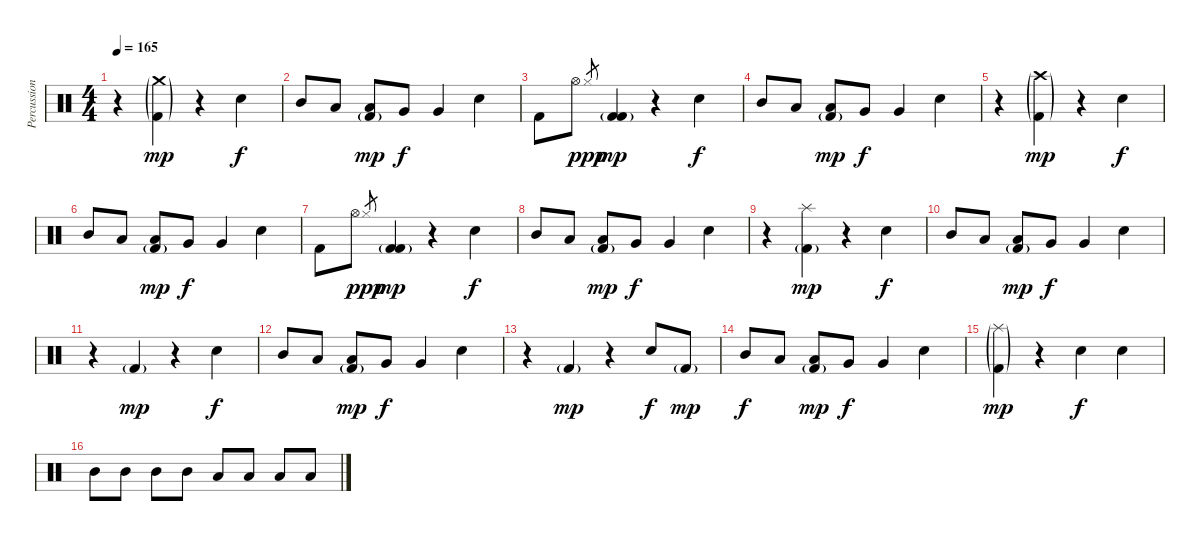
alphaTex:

\track ("Percussions" "Percussion") {instrument percussion}
\staff {score}
\articulation defaults
\ts (4 4)
\tempo 165
\clef neutral
\ks c
r.4{dy f} ("Kick (hit) 2"{g} "Crash medium (hit)"{g}).4{dy mp} r.4 "Electric Snare (hit)".4{dy f} |
"Mid Tom (hit)".8 "Low Tom (hit)".8 ("Kick (hit) 2"{g} "Low Tom (hit)").8{dy mp} "Very Low Tom (hit)".8{dy f} "Very Low Tom (hit)".4 "Electric Snare (hit)".4 |
"Kick (hit) 2".8 "Hi-Hat (open)".8 "Hi-Hat (closed)".8{gr dy ppp} ("Kick (hit) 2"{g} "Kick (hit) 2").4{dy mp} r.4 "Electric Snare (hit)".4{dy f} |
"Mid Tom (hit)".8 "Low Tom (hit)".8 ("Kick (hit) 2"{g} "Low Tom (hit)").8{dy mp} "Very Low Tom (hit)".8{dy f} "Very Low Tom (hit)".4 "Electric Snare (hit)".4 |
r.4 ("Kick (hit) 2"{g} "Crash high (hit)"{g}).4{dy mp} r.4 "Electric Snare (hit)".4{dy f} |
"Mid Tom (hit)".8 "Low Tom (hit)".8 ("Kick (hit) 2"{g} "Low Tom (hit)").8{dy mp} "Very Low Tom (hit)".8{dy f} "Very Low Tom (hit)".4 "Electric Snare (hit)".4 |
"Kick (hit) 2".8 "Hi-Hat (open)".8 "Hi-Hat (closed)".8{gr dy ppp} ("Kick (hit) 2"{g} "Kick (hit) 2").4{dy mp} r.4 "Electric Snare (hit)".4{dy f} |
"Mid Tom (hit)".8 "Low Tom (hit)".8 ("Kick (hit) 2"{g} "Low Tom (hit)").8{dy mp} "Very Low Tom (hit)".8{dy f} "Very Low Tom (hit)".4 "Electric Snare (hit)".4 |
r.4 ("Kick (hit) 2"{g} "Splash (hit)").4{dy mp} r.4 "Electric Snare (hit)".4{dy f} |
"Mid Tom (hit)".8 "Low Tom (hit)".8 ("Kick (hit) 2"{g} "Low Tom (hit)").8{dy mp} "Very Low Tom (hit)".8{dy f} "Very Low Tom (hit)".4 "Electric Snare (hit)".4 |
r.4 "Kick (hit) 2"{g}.4{dy mp} r.4 "Electric Snare (hit)".4{dy f} |
"Mid Tom (hit)".8 "Low Tom (hit)".8 ("Kick (hit) 2"{g} "Low Tom (hit)").8{dy mp} "Very Low Tom (hit)".8{dy f} "Very Low Tom (hit)".4 "Electric Snare (hit)".4 |
r.4 "Kick (hit) 2"{g}.4{dy mp} r.4 "Electric Snare (hit)".8{dy f} "Kick (hit) 2"{g}.8{dy mp} |
"Mid Tom (hit)".8{dy f} "Low Tom (hit)".8 ("Kick (hit) 2"{g} "Low Tom (hit)").8{dy mp} "Very Low Tom (hit)".8{dy f} "Very Low Tom (hit)".4 "Electric Snare (hit)".4 |
("Splash (hit)"{g} "Kick (hit) 2"{g}).4{dy mp} r.4 "Electric Snare (hit)".4{dy f} "Electric Snare (hit)".4 |
"Mid Tom (hit)".8 "Mid Tom (hit)".8 "Mid Tom (hit)".8 "Mid Tom (hit)".8 "Low Tom (hit)".8 "Low Tom (hit)".8 "Low Tom (hit)".8 "Low Tom (hit)".8
